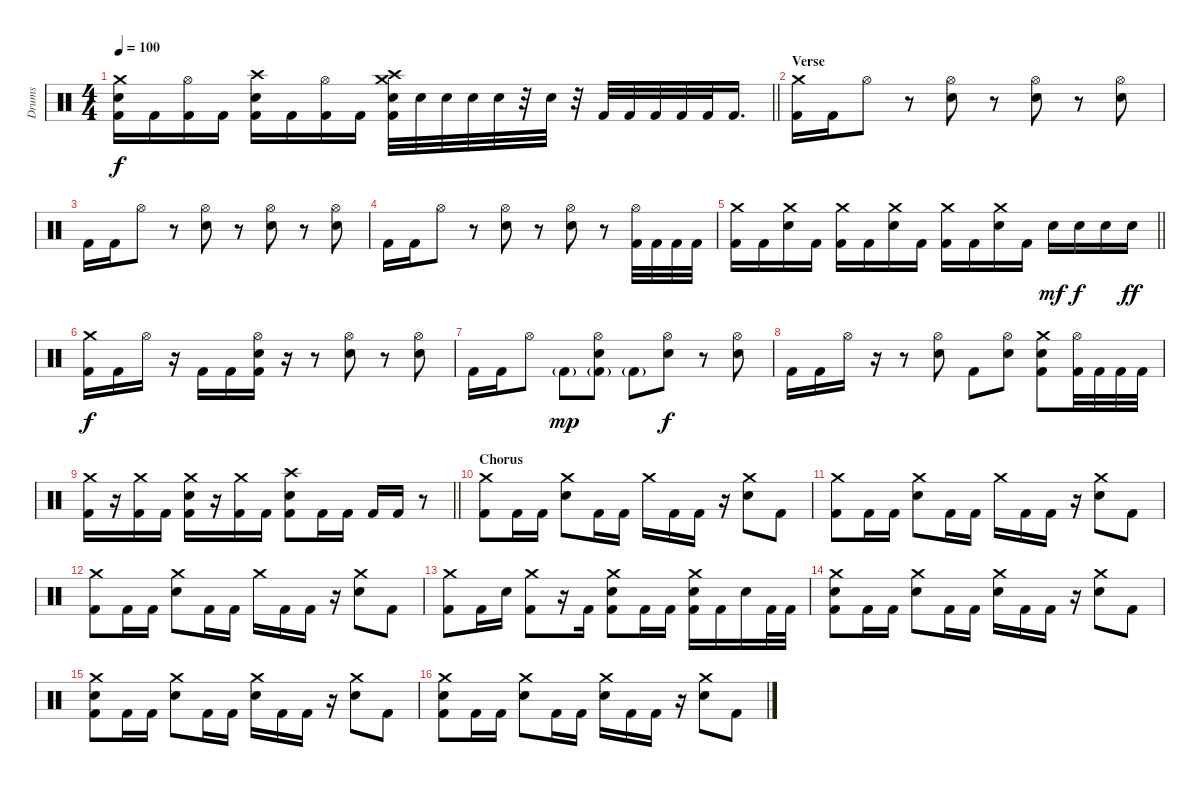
\track ("Drums" "Drums") {instrument percussion}
\staff {score}
\articulation defaults
\ts (4 4)
\tempo 100
\clef neutral
\barLineRight lightlight
\ks c
("Crash medium (hit)" "Electric Snare (hit)" "Kick (hit) 2").16{dy f} "Kick (hit) 2".16 ("Hi-Hat (open)" "Kick (hit) 2").16 "Kick (hit) 2".16 ("Crash high (hit)" "Electric Snare (hit)" "Kick (hit) 2").16 "Kick (hit) 2".16 ("Hi-Hat (open)" "Kick (hit) 2").16 "Kick (hit) 2".16 ("Crash medium (hit)" "Crash high (hit)" "Electric Snare (hit)" "Kick (hit) 2").32 "Electric Snare (hit)".32 "Electric Snare (hit)".32 "Electric Snare (hit)".32 "Electric Snare (hit)".32 r.32 "Electric Snare (hit)".32 r.32 "Kick (hit) 2".32 "Kick (hit) 2".32 "Kick (hit) 2".32 "Kick (hit) 2".32 "Kick (hit) 2".32 "Kick (hit) 2".16{d} |
\section ("" "Verse")
("Crash medium (hit)" "Kick (hit) 2").16 "Kick (hit) 2".16 "Hi-Hat (open)".8 r.8 ("Hi-Hat (open)" "Electric Snare (hit)").8 r.8 ("Hi-Hat (open)" "Electric Snare (hit)").8 r.8 ("Hi-Hat (open)" "Electric Snare (hit)").8 |
"Kick (hit) 2".16 "Kick (hit) 2".16 "Hi-Hat (open)".8 r.8 ("Hi-Hat (open)" "Electric Snare (hit)").8 r.8 ("Hi-Hat (open)" "Electric Snare (hit)").8 r.8 ("Hi-Hat (open)" "Electric Snare (hit)").8 |
"Kick (hit) 2".16 "Kick (hit) 2".16 "Hi-Hat (open)".8 r.8 ("Hi-Hat (open)" "Electric Snare (hit)").8 r.8 ("Hi-Hat (open)" "Electric Snare (hit)").8 r.8 ("Hi-Hat (open)" "Kick (hit) 2").32 "Kick (hit) 2".32 "Kick (hit) 2".32 "Kick (hit) 2".32 |
\barLineRight lightlight
("Crash medium (hit)" "Kick (hit) 2").16 "Kick (hit) 2".16 ("Crash medium (hit)" "Electric Snare (hit)").16 "Kick (hit) 2".16 ("Crash medium (hit)" "Kick (hit) 2").16 "Kick (hit) 2".16 ("Crash medium (hit)" "Electric Snare (hit)").16 "Kick (hit) 2".16 ("Crash medium (hit)" "Kick (hit) 2").16 "Kick (hit) 2".16 ("Crash medium (hit)" "Electric Snare (hit)").16 "Kick (hit) 2".16 "Electric Snare (hit)".16{dy mf} "Electric Snare (hit)".16{dy f} "Electric Snare (hit)".16 "Electric Snare (hit)".16{dy ff} |
("Crash medium (hit)" "Kick (hit) 2").16{dy f} "Kick (hit) 2".16 "Hi-Hat (open)".16 r.16 "Kick (hit) 2".16 "Kick (hit) 2".16 ("Hi-Hat (open)" "Electric Snare (hit)" "Kick (hit) 2").16 r.16 r.8 ("Hi-Hat (open)" "Electric Snare (hit)").8 r.8 ("Hi-Hat (open)" "Electric Snare (hit)").8 |
"Kick (hit) 2".16 "Kick (hit) 2".16 "Hi-Hat (open)".8 "Kick (hit) 2"{g}.8{dy mp} ("Hi-Hat (open)" "Electric Snare (hit)" "Kick (hit) 2"{g}).8 "Kick (hit) 2"{g}.8 ("Hi-Hat (open)" "Electric Snare (hit)").8{dy f} r.8 ("Hi-Hat (open)" "Electric Snare (hit)").8 |
"Kick (hit) 2".16 "Kick (hit) 2".16 "Hi-Hat (open)".16 r.16 r.8 ("Hi-Hat (open)" "Electric Snare (hit)").8 "Kick (hit) 2".8 ("Hi-Hat (open)" "Electric Snare (hit)").8 ("Crash medium (hit)" "Electric Snare (hit)" "Kick (hit) 2").8 ("Hi-Hat (open)" "Kick (hit) 2").32 "Kick (hit) 2".32 "Kick (hit) 2".32 "Kick (hit) 2".32 |
\barLineRight lightlight
("Crash medium (hit)" "Kick (hit) 2").16 r.16 ("Crash medium (hit)" "Kick (hit) 2").16 "Kick (hit) 2".16 ("Crash medium (hit)" "Electric Snare (hit)" "Kick (hit) 2").16 r.16 ("Crash medium (hit)" "Kick (hit) 2").16 "Kick (hit) 2".16 ("Crash high (hit)" "Electric Snare (hit)" "Kick (hit) 2").8 "Kick (hit) 2".16 "Kick (hit) 2".16 "Kick (hit) 2".16 "Kick (hit) 2".16 r.8 |
\section ("" "Chorus")
("Crash medium (hit)" "Kick (hit) 2").8 "Kick (hit) 2".16 "Kick (hit) 2".16 ("Crash medium (hit)" "Electric Snare (hit)").8 "Kick (hit) 2".16 "Kick (hit) 2".16 "Crash medium (hit)".16 "Kick (hit) 2".16 "Kick (hit) 2".16 r.16 ("Crash medium (hit)" "Electric Snare (hit)").8 "Kick (hit) 2".8 |
("Crash medium (hit)" "Kick (hit) 2").8 "Kick (hit) 2".16 "Kick (hit) 2".16 ("Crash medium (hit)" "Electric Snare (hit)").8 "Kick (hit) 2".16 "Kick (hit) 2".16 "Crash medium (hit)".16 "Kick (hit) 2".16 "Kick (hit) 2".16 r.16 ("Crash medium (hit)" "Electric Snare (hit)").8 "Kick (hit) 2".8 |
("Crash medium (hit)" "Kick (hit) 2").8 "Kick (hit) 2".16 "Kick (hit) 2".16 ("Crash medium (hit)" "Electric Snare (hit)").8 "Kick (hit) 2".16 "Kick (hit) 2".16 "Crash medium (hit)".16 "Kick (hit) 2".16 "Kick (hit) 2".16 r.16 ("Crash medium (hit)" "Electric Snare (hit)").8 "Kick (hit) 2".8 |
("Crash medium (hit)" "Kick (hit) 2").8 "Kick (hit) 2".16 "Electric Snare (hit)".16 ("Crash medium (hit)" "Kick (hit) 2").8 r.16 "Kick (hit) 2".16 ("Crash medium (hit)" "Electric Snare (hit)" "Kick (hit) 2").8 "Kick (hit) 2".16 "Kick (hit) 2".16 ("Crash medium (hit)" "Electric Snare (hit)" "Kick (hit) 2").16 "Kick (hit) 2".16 "Electric Snare (hit)".16 "Kick (hit) 2".32 "Kick (hit) 2".32 |
("Crash medium (hit)" "Electric Snare (hit)" "Kick (hit) 2").8 "Kick (hit) 2".16 "Kick (hit) 2".16 ("Crash medium (hit)" "Electric Snare (hit)").8 "Kick (hit) 2".16 "Kick (hit) 2".16 ("Crash medium (hit)" "Electric Snare (hit)").16 "Kick (hit) 2".16 "Kick (hit) 2".16 r.16 ("Crash medium (hit)" "Electric Snare (hit)").8 "Kick (hit) 2".8 |
("Crash medium (hit)" "Electric Snare (hit)" "Kick (hit) 2").8 "Kick (hit) 2".16 "Kick (hit) 2".16 ("Crash medium (hit)" "Electric Snare (hit)").8 "Kick (hit) 2".16 "Kick (hit) 2".16 ("Crash medium (hit)" "Electric Snare (hit)").16 "Kick (hit) 2".16 "Kick (hit) 2".16 r.16 ("Crash medium (hit)" "Electric Snare (hit)").8 "Kick (hit) 2".8 |
("Crash medium (hit)" "Electric Snare (hit)" "Kick (hit) 2").8 "Kick (hit) 2".16 "Kick (hit) 2".16 ("Crash medium (hit)" "Electric Snare (hit)").8 "Kick (hit) 2".16 "Kick (hit) 2".16 ("Crash medium (hit)" "Electric Snare (hit)").16 "Kick (hit) 2".16 "Kick (hit) 2".16 r.16 ("Crash medium (hit)" "Electric Snare (hit)").8 "Kick (hit) 2".8
